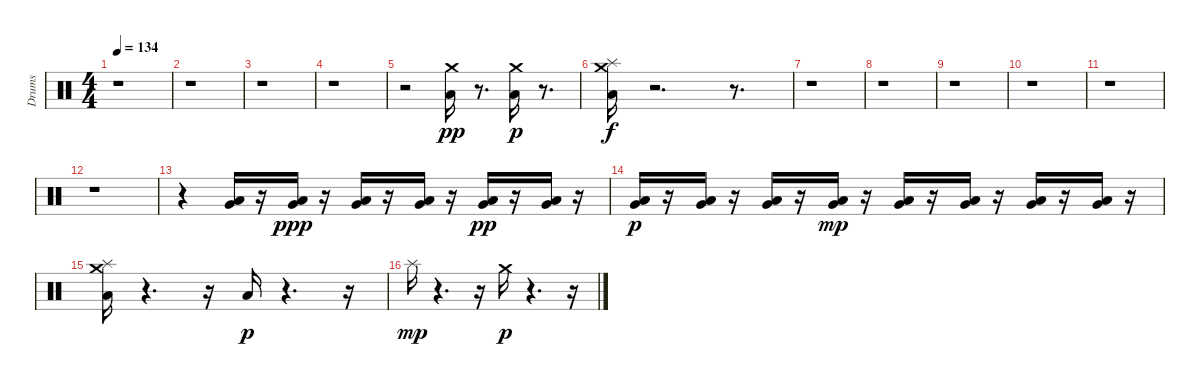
\track ("Drums" "Drums") {instrument percussion}
\staff {score}
\articulation defaults
\ts (4 4)
\tempo 134
\clef neutral
\ks c
r.1{dy mp} |
r.1 |
r.1 |
r.1 |
r.2 ("Crash medium (hit)" "Low Floor Tom (hit)").16{dy pp} r.8{d} ("Crash medium (hit)" "Low Floor Tom (hit)").16{dy p} r.8{d} |
("Crash medium (hit)" "Splash (hit)" "Low Floor Tom (hit)").16{dy f} r.2{d} r.8{d} |
r.1 |
r.1 |
r.1 |
r.1 |
r.1 |
r.1 |
r.4 ("Very Low Tom (hit)" "Low Tom (hit)").16 r.16 ("Very Low Tom (hit)" "Low Tom (hit)").16{dy ppp} r.16 ("Very Low Tom (hit)" "Low Tom (hit)").16 r.16 ("Very Low Tom (hit)" "Low Tom (hit)").16 r.16 ("Very Low Tom (hit)" "Low Tom (hit)").16{dy pp} r.16 ("Very Low Tom (hit)" "Low Tom (hit)").16 r.16 |
("Very Low Tom (hit)" "Low Tom (hit)").16{dy p} r.16 ("Very Low Tom (hit)" "Low Tom (hit)").16 r.16 ("Very Low Tom (hit)" "Low Tom (hit)").16 r.16 ("Very Low Tom (hit)" "Low Tom (hit)").16{dy mp} r.16 ("Very Low Tom (hit)" "Low Tom (hit)").16 r.16 ("Very Low Tom (hit)" "Low Tom (hit)").16 r.16 ("Very Low Tom (hit)" "Low Tom (hit)").16 r.16 ("Very Low Tom (hit)" "Low Tom (hit)").16 r.16 |
("Crash medium (hit)" "Splash (hit)" "Low Floor Tom (hit)").16 r.4{d} r.16 "Low Floor Tom (hit)".16{dy p} r.4{d} r.16 |
"Splash (hit)".16{dy mp} r.4{d} r.16 "Crash medium (hit)".16{dy p} r.4{d} r.16
